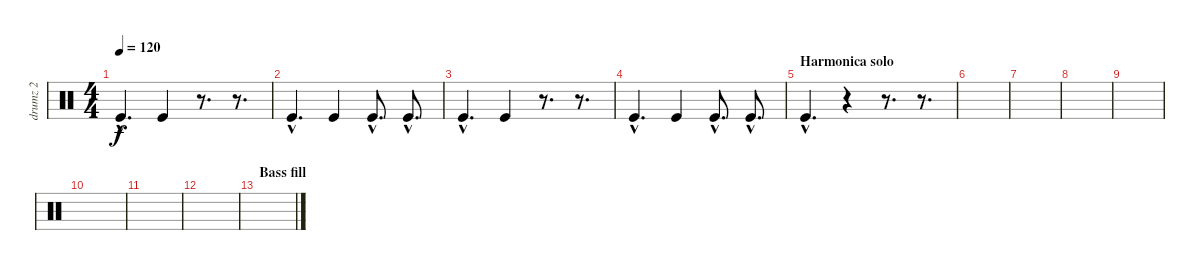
\track ("drumz 2" "drumz 2") {instrument percussion}
\staff {score}
\articulation defaults
\ts (4 4)
\tempo 120
\clef neutral
\ks c "Kick (hit)"{hac}.4{d dy f} "Kick (hit)".4
r.8{d} r.8{d} |
"Kick (hit)"{hac}.4{d} "Kick (hit)".4 "Kick (hit)"{hac}.8{d} "Kick (hit)"{hac}.8{d} |
"Kick (hit)"{hac}.4{d} "Kick (hit)".4 r.8{d} r.8{d} |
"Kick (hit)"{hac}.4{d} "Kick (hit)".4 "Kick (hit)"{hac}.8{d} "Kick (hit)"{hac}.8{d} |
\section ("" "Harmonica solo")
"Kick (hit)"{hac}.4{d} r.4 r.8{d} r.8{d} |
|
|
|
|
|
|
|
\section ("" "Bass fill")
